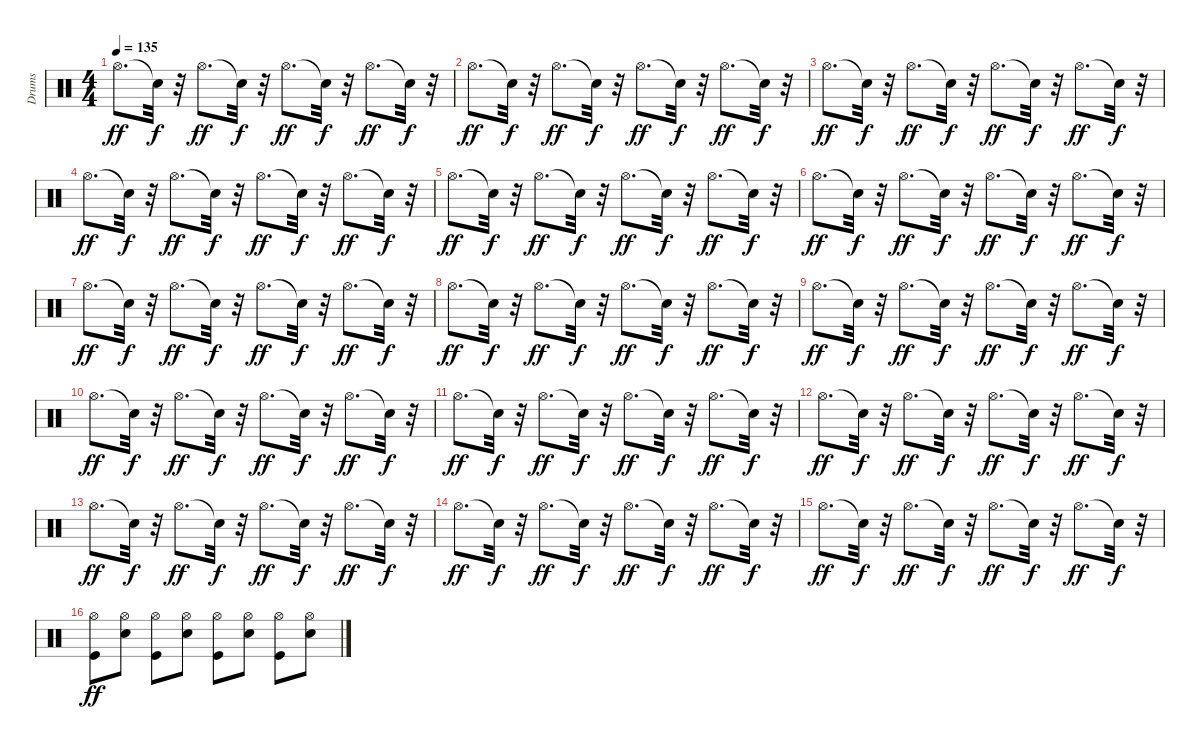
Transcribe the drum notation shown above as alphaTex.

\track ("Drums" "Drums") {instrument percussion}
\staff {score}
\articulation defaults
\ts (4 4)
\tempo 135
\clef neutral
\ks c "Hi-Hat (open)".8{d dy ff} "Snare (hit)"{t}.32{dy f}
r.32 "Hi-Hat (open)".8{d dy ff} "Snare (hit)"{t}.32{dy f} r.32 "Hi-Hat (open)".8{d dy ff} "Snare (hit)"{t}.32{dy f} r.32 "Hi-Hat (open)".8{d dy ff} "Snare (hit)"{t}.32{dy f} r.32 |
"Hi-Hat (open)".8{d dy ff} "Snare (hit)"{t}.32{dy f} r.32 "Hi-Hat (open)".8{d dy ff} "Snare (hit)"{t}.32{dy f} r.32 "Hi-Hat (open)".8{d dy ff} "Snare (hit)"{t}.32{dy f} r.32 "Hi-Hat (open)".8{d dy ff} "Snare (hit)"{t}.32{dy f} r.32 |
"Hi-Hat (open)".8{d dy ff} "Snare (hit)"{t}.32{dy f} r.32 "Hi-Hat (open)".8{d dy ff} "Snare (hit)"{t}.32{dy f} r.32 "Hi-Hat (open)".8{d dy ff} "Snare (hit)"{t}.32{dy f} r.32 "Hi-Hat (open)".8{d dy ff} "Snare (hit)"{t}.32{dy f} r.32 |
"Hi-Hat (open)".8{d dy ff} "Snare (hit)"{t}.32{dy f} r.32 "Hi-Hat (open)".8{d dy ff} "Snare (hit)"{t}.32{dy f} r.32 "Hi-Hat (open)".8{d dy ff} "Snare (hit)"{t}.32{dy f} r.32 "Hi-Hat (open)".8{d dy ff} "Snare (hit)"{t}.32{dy f} r.32 |
"Hi-Hat (open)".8{d dy ff} "Snare (hit)"{t}.32{dy f} r.32 "Hi-Hat (open)".8{d dy ff} "Snare (hit)"{t}.32{dy f} r.32 "Hi-Hat (open)".8{d dy ff} "Snare (hit)"{t}.32{dy f} r.32 "Hi-Hat (open)".8{d dy ff} "Snare (hit)"{t}.32{dy f} r.32 |
"Hi-Hat (open)".8{d dy ff} "Snare (hit)"{t}.32{dy f} r.32 "Hi-Hat (open)".8{d dy ff} "Snare (hit)"{t}.32{dy f} r.32 "Hi-Hat (open)".8{d dy ff} "Snare (hit)"{t}.32{dy f} r.32 "Hi-Hat (open)".8{d dy ff} "Snare (hit)"{t}.32{dy f} r.32 |
"Hi-Hat (open)".8{d dy ff} "Snare (hit)"{t}.32{dy f} r.32 "Hi-Hat (open)".8{d dy ff} "Snare (hit)"{t}.32{dy f} r.32 "Hi-Hat (open)".8{d dy ff} "Snare (hit)"{t}.32{dy f} r.32 "Hi-Hat (open)".8{d dy ff} "Snare (hit)"{t}.32{dy f} r.32 |
"Hi-Hat (open)".8{d dy ff} "Snare (hit)"{t}.32{dy f} r.32 "Hi-Hat (open)".8{d dy ff} "Snare (hit)"{t}.32{dy f} r.32 "Hi-Hat (open)".8{d dy ff} "Snare (hit)"{t}.32{dy f} r.32 "Hi-Hat (open)".8{d dy ff} "Snare (hit)"{t}.32{dy f} r.32 |
"Hi-Hat (open)".8{d dy ff} "Snare (hit)"{t}.32{dy f} r.32 "Hi-Hat (open)".8{d dy ff} "Snare (hit)"{t}.32{dy f} r.32 "Hi-Hat (open)".8{d dy ff} "Snare (hit)"{t}.32{dy f} r.32 "Hi-Hat (open)".8{d dy ff} "Snare (hit)"{t}.32{dy f} r.32 |
"Hi-Hat (open)".8{d dy ff} "Snare (hit)"{t}.32{dy f} r.32 "Hi-Hat (open)".8{d dy ff} "Snare (hit)"{t}.32{dy f} r.32 "Hi-Hat (open)".8{d dy ff} "Snare (hit)"{t}.32{dy f} r.32 "Hi-Hat (open)".8{d dy ff} "Snare (hit)"{t}.32{dy f} r.32 |
"Hi-Hat (open)".8{d dy ff} "Snare (hit)"{t}.32{dy f} r.32 "Hi-Hat (open)".8{d dy ff} "Snare (hit)"{t}.32{dy f} r.32 "Hi-Hat (open)".8{d dy ff} "Snare (hit)"{t}.32{dy f} r.32 "Hi-Hat (open)".8{d dy ff} "Snare (hit)"{t}.32{dy f} r.32 |
"Hi-Hat (open)".8{d dy ff} "Snare (hit)"{t}.32{dy f} r.32 "Hi-Hat (open)".8{d dy ff} "Snare (hit)"{t}.32{dy f} r.32 "Hi-Hat (open)".8{d dy ff} "Snare (hit)"{t}.32{dy f} r.32 "Hi-Hat (open)".8{d dy ff} "Snare (hit)"{t}.32{dy f} r.32 |
"Hi-Hat (open)".8{d dy ff} "Snare (hit)"{t}.32{dy f} r.32 "Hi-Hat (open)".8{d dy ff} "Snare (hit)"{t}.32{dy f} r.32 "Hi-Hat (open)".8{d dy ff} "Snare (hit)"{t}.32{dy f} r.32 "Hi-Hat (open)".8{d dy ff} "Snare (hit)"{t}.32{dy f} r.32 |
"Hi-Hat (open)".8{d dy ff} "Snare (hit)"{t}.32{dy f} r.32 "Hi-Hat (open)".8{d dy ff} "Snare (hit)"{t}.32{dy f} r.32 "Hi-Hat (open)".8{d dy ff} "Snare (hit)"{t}.32{dy f} r.32 "Hi-Hat (open)".8{d dy ff} "Snare (hit)"{t}.32{dy f} r.32 |
"Hi-Hat (open)".8{d dy ff} "Snare (hit)"{t}.32{dy f} r.32 "Hi-Hat (open)".8{d dy ff} "Snare (hit)"{t}.32{dy f} r.32 "Hi-Hat (open)".8{d dy ff} "Snare (hit)"{t}.32{dy f} r.32 "Hi-Hat (open)".8{d dy ff} "Snare (hit)"{t}.32{dy f} r.32 |
("Kick (hit)" "Hi-Hat (open)").8{dy ff} ("Electric Snare (hit)" "Hi-Hat (open)").8 ("Kick (hit)" "Hi-Hat (open)").8 ("Electric Snare (hit)" "Hi-Hat (open)").8 ("Kick (hit)" "Hi-Hat (open)").8 ("Electric Snare (hit)" "Hi-Hat (open)").8 ("Kick (hit)" "Hi-Hat (open)").8 ("Electric Snare (hit)" "Hi-Hat (open)").8
